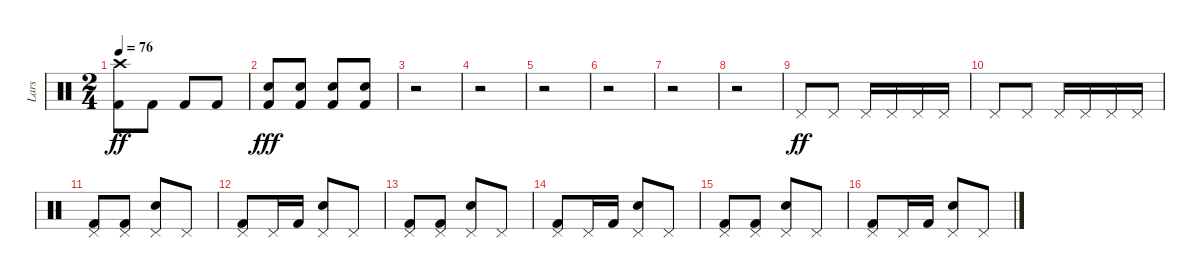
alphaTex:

\track ("Lars" "Lars") {instrument percussion}
\staff {score}
\articulation defaults
\ts (2 4)
\tempo 76
\clef neutral
\ks c
("Crash high (hit)" "Kick (hit) 2").8{dy ff} "Kick (hit) 2".8 "Kick (hit) 2".8 "Kick (hit) 2".8 |
("Snare (hit) 2" "Kick (hit) 2").8{dy fff} ("Snare (hit) 2" "Kick (hit) 2").8 ("Snare (hit) 2" "Kick (hit) 2").8 ("Snare (hit) 2" "Kick (hit) 2").8 |
r.2 |
r.2 |
r.2 |
r.2 |
r.2 |
r.2 |
"Pedal Hi-Hat (hit)".8{dy ff} "Pedal Hi-Hat (hit)".8 "Pedal Hi-Hat (hit)".16 "Pedal Hi-Hat (hit)".16 "Pedal Hi-Hat (hit)".16 "Pedal Hi-Hat (hit)".16 |
"Pedal Hi-Hat (hit)".8 "Pedal Hi-Hat (hit)".8 "Pedal Hi-Hat (hit)".16 "Pedal Hi-Hat (hit)".16 "Pedal Hi-Hat (hit)".16 "Pedal Hi-Hat (hit)".16 |
("Pedal Hi-Hat (hit)" "Kick (hit) 2").8 ("Pedal Hi-Hat (hit)" "Kick (hit) 2").8 ("Pedal Hi-Hat (hit)" "Snare (hit) 2").8 "Pedal Hi-Hat (hit)".8 |
("Pedal Hi-Hat (hit)" "Kick (hit) 2").8 "Pedal Hi-Hat (hit)".16 "Kick (hit) 2".16 ("Pedal Hi-Hat (hit)" "Snare (hit) 2").8 "Pedal Hi-Hat (hit)".8 |
("Pedal Hi-Hat (hit)" "Kick (hit) 2").8 ("Pedal Hi-Hat (hit)" "Kick (hit) 2").8 ("Pedal Hi-Hat (hit)" "Snare (hit) 2").8 "Pedal Hi-Hat (hit)".8 |
("Pedal Hi-Hat (hit)" "Kick (hit) 2").8 "Pedal Hi-Hat (hit)".16 "Kick (hit) 2".16 ("Pedal Hi-Hat (hit)" "Snare (hit) 2").8 "Pedal Hi-Hat (hit)".8 |
("Pedal Hi-Hat (hit)" "Kick (hit) 2").8 ("Pedal Hi-Hat (hit)" "Kick (hit) 2").8 ("Pedal Hi-Hat (hit)" "Snare (hit) 2").8 "Pedal Hi-Hat (hit)".8 |
("Pedal Hi-Hat (hit)" "Kick (hit) 2").8 "Pedal Hi-Hat (hit)".16 "Kick (hit) 2".16 ("Pedal Hi-Hat (hit)" "Snare (hit) 2").8 "Pedal Hi-Hat (hit)".8
